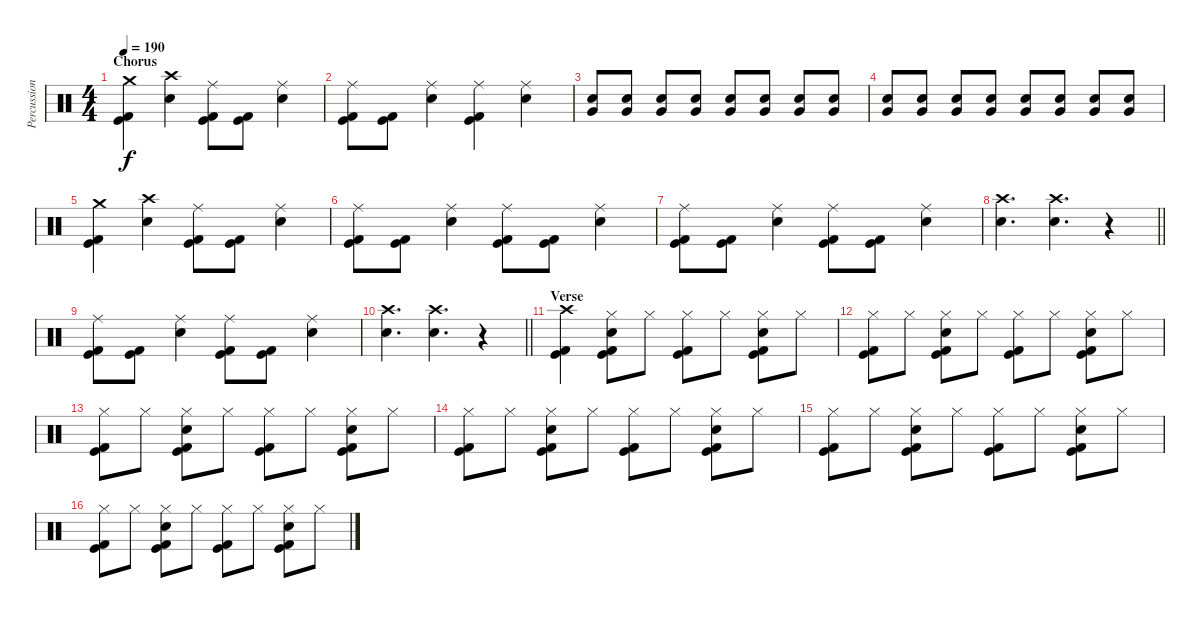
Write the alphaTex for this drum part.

\track ("Percussion" "Percussion") {instrument percussion}
\staff {score}
\articulation defaults
\ts (4 4)
\section ("" "Chorus")
\tempo 190
\clef neutral
\ks c
("Crash medium (hit)" "Kick (hit)" "Kick (hit) 2").4{dy f} ("Crash high (hit)" "Electric Snare (hit)").4 ("Ride (middle)" "Kick (hit)" "Kick (hit) 2").8 ("Kick (hit)" "Kick (hit) 2").8 ("Ride (middle)" "Electric Snare (hit)").4 |
("Ride (middle)" "Kick (hit)" "Kick (hit) 2").8 ("Kick (hit)" "Kick (hit) 2").8 ("Ride (middle)" "Electric Snare (hit)").4 ("Ride (middle)" "Kick (hit)" "Kick (hit) 2").4 ("Ride (middle)" "Electric Snare (hit)").4 |
("Very Low Tom (hit)" "Electric Snare (hit)").8 ("Very Low Tom (hit)" "Electric Snare (hit)").8 ("Very Low Tom (hit)" "Electric Snare (hit)").8 ("Very Low Tom (hit)" "Electric Snare (hit)").8 ("Very Low Tom (hit)" "Electric Snare (hit)").8 ("Very Low Tom (hit)" "Electric Snare (hit)").8 ("Very Low Tom (hit)" "Electric Snare (hit)").8 ("Very Low Tom (hit)" "Electric Snare (hit)").8 |
("Very Low Tom (hit)" "Electric Snare (hit)").8 ("Very Low Tom (hit)" "Electric Snare (hit)").8 ("Very Low Tom (hit)" "Electric Snare (hit)").8 ("Very Low Tom (hit)" "Electric Snare (hit)").8 ("Very Low Tom (hit)" "Electric Snare (hit)").8 ("Very Low Tom (hit)" "Electric Snare (hit)").8 ("Very Low Tom (hit)" "Electric Snare (hit)").8 ("Very Low Tom (hit)" "Electric Snare (hit)").8 |
("Crash medium (hit)" "Kick (hit)" "Kick (hit) 2").4 ("Crash high (hit)" "Electric Snare (hit)").4 ("Ride (middle)" "Kick (hit)" "Kick (hit) 2").8 ("Kick (hit)" "Kick (hit) 2").8 ("Ride (middle)" "Electric Snare (hit)").4 |
("Ride (middle)" "Kick (hit)" "Kick (hit) 2").8 ("Kick (hit)" "Kick (hit) 2").8 ("Ride (middle)" "Electric Snare (hit)").4 ("Ride (middle)" "Kick (hit)" "Kick (hit) 2").8 ("Kick (hit)" "Kick (hit) 2").8 ("Ride (middle)" "Electric Snare (hit)").4 |
("Ride (middle)" "Kick (hit)" "Kick (hit) 2").8 ("Kick (hit)" "Kick (hit) 2").8 ("Ride (middle)" "Electric Snare (hit)").4 ("Ride (middle)" "Kick (hit)" "Kick (hit) 2").8 ("Kick (hit)" "Kick (hit) 2").8 ("Ride (middle)" "Electric Snare (hit)").4 |
\barLineRight lightlight
("Crash high (hit)" "Electric Snare (hit)").4{d} ("Crash high (hit)" "Electric Snare (hit)").4{d} r.4 |
("Ride (middle)" "Kick (hit)" "Kick (hit) 2").8 ("Kick (hit)" "Kick (hit) 2").8 ("Ride (middle)" "Electric Snare (hit)").4 ("Ride (middle)" "Kick (hit)" "Kick (hit) 2").8 ("Kick (hit)" "Kick (hit) 2").8 ("Ride (middle)" "Electric Snare (hit)").4 |
\barLineRight lightlight
("Crash high (hit)" "Electric Snare (hit)").4{d} ("Crash high (hit)" "Electric Snare (hit)").4{d} r.4 |
\section ("" "Verse")
("Crash high (hit)" "Kick (hit)" "Kick (hit) 2").4 ("Hi-Hat (closed)" "Electric Snare (hit)" "Kick (hit)" "Kick (hit) 2").8 "Hi-Hat (closed)".8 ("Hi-Hat (closed)" "Kick (hit)" "Kick (hit) 2").8 "Hi-Hat (closed)".8 ("Hi-Hat (closed)" "Electric Snare (hit)" "Kick (hit)" "Kick (hit) 2").8 "Hi-Hat (closed)".8 |
("Hi-Hat (closed)" "Kick (hit)" "Kick (hit) 2").8 "Hi-Hat (closed)".8 ("Hi-Hat (closed)" "Electric Snare (hit)" "Kick (hit)" "Kick (hit) 2").8 "Hi-Hat (closed)".8 ("Hi-Hat (closed)" "Kick (hit)" "Kick (hit) 2").8 "Hi-Hat (closed)".8 ("Hi-Hat (closed)" "Electric Snare (hit)" "Kick (hit)" "Kick (hit) 2").8 "Hi-Hat (closed)".8 |
("Hi-Hat (closed)" "Kick (hit)" "Kick (hit) 2").8 "Hi-Hat (closed)".8 ("Hi-Hat (closed)" "Electric Snare (hit)" "Kick (hit)" "Kick (hit) 2").8 "Hi-Hat (closed)".8 ("Hi-Hat (closed)" "Kick (hit)" "Kick (hit) 2").8 "Hi-Hat (closed)".8 ("Hi-Hat (closed)" "Electric Snare (hit)" "Kick (hit)" "Kick (hit) 2").8 "Hi-Hat (closed)".8 |
("Hi-Hat (closed)" "Kick (hit)" "Kick (hit) 2").8 "Hi-Hat (closed)".8 ("Hi-Hat (closed)" "Electric Snare (hit)" "Kick (hit)" "Kick (hit) 2").8 "Hi-Hat (closed)".8 ("Hi-Hat (closed)" "Kick (hit)" "Kick (hit) 2").8 "Hi-Hat (closed)".8 ("Hi-Hat (closed)" "Electric Snare (hit)" "Kick (hit)" "Kick (hit) 2").8 "Hi-Hat (closed)".8 |
("Hi-Hat (closed)" "Kick (hit)" "Kick (hit) 2").8 "Hi-Hat (closed)".8 ("Hi-Hat (closed)" "Electric Snare (hit)" "Kick (hit)" "Kick (hit) 2").8 "Hi-Hat (closed)".8 ("Hi-Hat (closed)" "Kick (hit)" "Kick (hit) 2").8 "Hi-Hat (closed)".8 ("Hi-Hat (closed)" "Electric Snare (hit)" "Kick (hit)" "Kick (hit) 2").8 "Hi-Hat (closed)".8 |
("Hi-Hat (closed)" "Kick (hit)" "Kick (hit) 2").8 "Hi-Hat (closed)".8 ("Hi-Hat (closed)" "Electric Snare (hit)" "Kick (hit)" "Kick (hit) 2").8 "Hi-Hat (closed)".8 ("Hi-Hat (closed)" "Kick (hit)" "Kick (hit) 2").8 "Hi-Hat (closed)".8 ("Hi-Hat (closed)" "Electric Snare (hit)" "Kick (hit)" "Kick (hit) 2").8 "Hi-Hat (closed)".8
